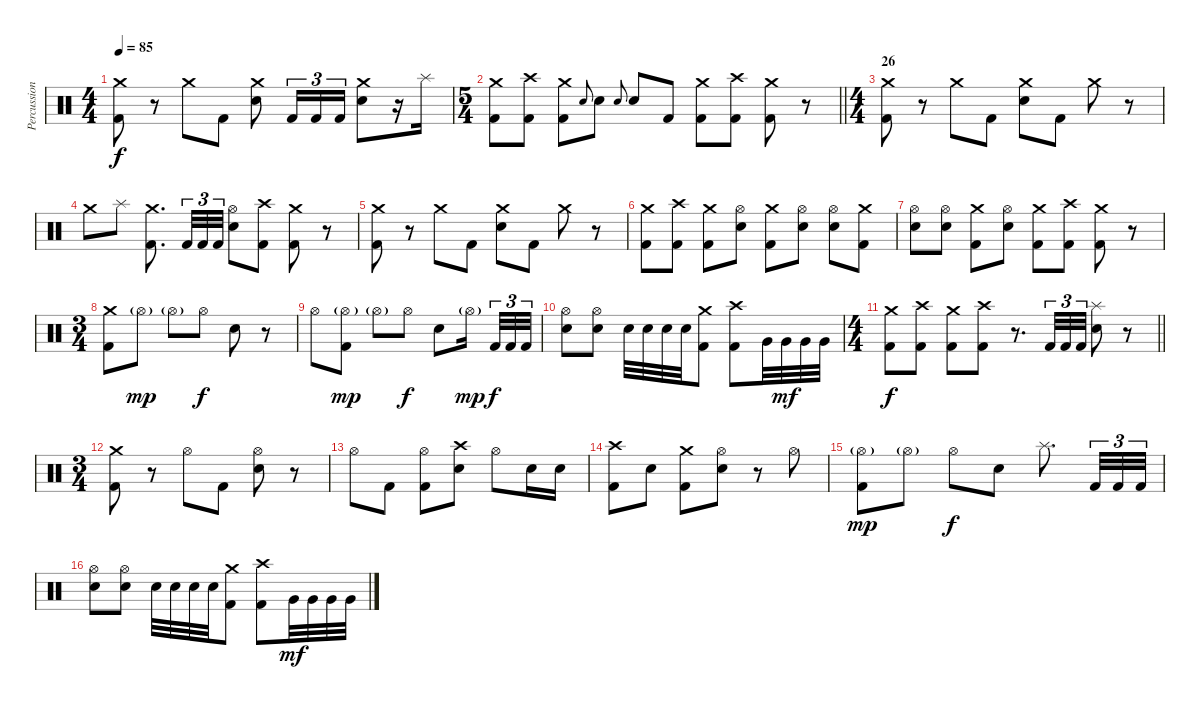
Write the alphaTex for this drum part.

\track ("Percussion" "Percussion") {instrument percussion}
\staff {score}
\articulation defaults
\ts (4 4)
\tempo 85
\clef neutral
\ks c
("Crash medium (hit)" "Kick (hit) 2").8{dy f} r.8 "Crash medium (hit)".8 "Kick (hit) 2".8 ("Crash medium (hit)" "Snare (hit) 2").8 "Kick (hit) 2".16{tu (3 2)} "Kick (hit) 2".16{tu (3 2)} "Kick (hit) 2".16{tu (3 2)} ("Crash medium (hit)" "Snare (hit) 2").8 r.16 "Splash (hit)".16 |
\ts (5 4)
\barLineRight lightlight
("Crash medium (hit)" "Kick (hit) 2").8 ("Crash high (hit)" "Kick (hit) 2").8 ("Crash medium (hit)" "Kick (hit) 2").8 "Snare (hit) 2".8{gr onbeat} "Snare (hit) 2".8 "Snare (hit) 2".8{gr onbeat} "Snare (hit) 2".8 "Kick (hit) 2".8 ("Crash medium (hit)" "Kick (hit) 2").8 ("Crash high (hit)" "Kick (hit) 2").8 ("Crash medium (hit)" "Kick (hit) 2").8 r.8 |
\ts (4 4)
\section ("" "26")
("Crash medium (hit)" "Kick (hit) 2").8 r.8 "Crash medium (hit)".8 "Kick (hit) 2".8 ("Crash medium (hit)" "Snare (hit) 2").8 "Kick (hit) 2".8 "Crash medium (hit)".8 r.8 |
"Crash medium (hit)".8 "Splash (hit)".8 ("Crash medium (hit)" "Kick (hit) 2").8{d} "Kick (hit) 2".32{tu (3 2)} "Kick (hit) 2".32{tu (3 2)} "Kick (hit) 2".32{tu (3 2)} ("Hi-Hat (open)" "Snare (hit) 2").8 ("Crash high (hit)" "Kick (hit) 2").8 ("Crash medium (hit)" "Kick (hit) 2").8 r.8 |
("Crash medium (hit)" "Kick (hit) 2").8 r.8 "Crash medium (hit)".8 "Kick (hit) 2".8 ("Crash medium (hit)" "Snare (hit) 2").8 "Kick (hit) 2".8 "Crash medium (hit)".8 r.8 |
("Crash medium (hit)" "Kick (hit) 2").8 ("Crash high (hit)" "Kick (hit) 2").8 ("Crash medium (hit)" "Kick (hit) 2").8 ("Hi-Hat (open)" "Snare (hit) 2").8 ("Crash medium (hit)" "Kick (hit) 2").8 ("Hi-Hat (open)" "Snare (hit) 2").8 ("Hi-Hat (open)" "Snare (hit) 2").8 ("Crash medium (hit)" "Kick (hit) 2").8 |
("Hi-Hat (open)" "Snare (hit) 2").8 ("Hi-Hat (open)" "Snare (hit) 2").8 ("Crash medium (hit)" "Kick (hit) 2").8 ("Hi-Hat (open)" "Snare (hit) 2").8 ("Crash medium (hit)" "Kick (hit) 2").8 ("Crash high (hit)" "Kick (hit) 2").8 ("Crash medium (hit)" "Kick (hit) 2").8 r.8 |
\ts (3 4)
("Crash medium (hit)" "Kick (hit) 2").8 "Hi-Hat (open)"{g}.8{dy mp} "Hi-Hat (open)"{g}.8 "Hi-Hat (open)".8{dy f} "Snare (hit) 2".8 r.8 |
"Hi-Hat (open)".8 ("Hi-Hat (open)"{g} "Kick (hit) 2").8{dy mp} "Hi-Hat (open)"{g}.8 "Hi-Hat (open)".8{dy f} "Snare (hit) 2".8 "Hi-Hat (open)"{g}.16{dy mp beam splitsecondary} "Kick (hit) 2".32{tu (3 2) dy f} "Kick (hit) 2".32{tu (3 2)} "Kick (hit) 2".32{tu (3 2)} |
("Hi-Hat (open)" "Snare (hit) 2").8 ("Hi-Hat (open)" "Snare (hit) 2").8 "Snare (hit) 2".32 "Snare (hit) 2".32 "Snare (hit) 2".32 "Snare (hit) 2".32 ("Crash medium (hit)" "Kick (hit) 2").8 ("Crash high (hit)" "Kick (hit) 2").8 "Very Low Tom (hit)".32 "Very Low Tom (hit)".32{dy mf} "Very Low Tom (hit)".32 "Very Low Tom (hit)".32 |
\ts (4 4)
\barLineRight lightlight
("Crash medium (hit)" "Kick (hit) 2").8{dy f} ("Crash high (hit)" "Kick (hit) 2").8 ("Crash medium (hit)" "Kick (hit) 2").8 ("Crash high (hit)" "Kick (hit) 2").8 r.8{d} "Kick (hit) 2".32{tu (3 2)} "Kick (hit) 2".32{tu (3 2)} "Kick (hit) 2".32{tu (3 2)} ("Splash (hit)" "Snare (hit) 2").8 r.8 |
\ts (3 4)
\section ("" "")
("Crash medium (hit)" "Kick (hit) 2").8 r.8 "Hi-Hat (open)".8 "Kick (hit) 2".8 ("Hi-Hat (open)" "Snare (hit) 2").8 r.8 |
"Hi-Hat (open)".8 "Kick (hit) 2".8 ("Hi-Hat (open)" "Kick (hit) 2").8 ("Crash high (hit)" "Snare (hit) 2").8 "Hi-Hat (open)".8 "Snare (hit) 2".16 "Snare (hit) 2".16 |
("Crash high (hit)" "Kick (hit) 2").8 "Snare (hit) 2".8 ("Crash medium (hit)" "Kick (hit) 2").8 ("Hi-Hat (open)" "Snare (hit) 2").8 r.8 "Hi-Hat (open)".8 |
("Hi-Hat (open)"{g} "Kick (hit) 2").8{dy mp} "Hi-Hat (open)"{g}.8 "Hi-Hat (open)".8{dy f} "Snare (hit) 2".8 "Splash (hit)".8{d} "Kick (hit) 2".32{tu (3 2)} "Kick (hit) 2".32{tu (3 2)} "Kick (hit) 2".32{tu (3 2)} |
("Hi-Hat (open)" "Snare (hit) 2").8 ("Hi-Hat (open)" "Snare (hit) 2").8 "Snare (hit) 2".32 "Snare (hit) 2".32 "Snare (hit) 2".32 "Snare (hit) 2".32 ("Crash medium (hit)" "Kick (hit) 2").8 ("Crash high (hit)" "Kick (hit) 2").8 "Very Low Tom (hit)".32{dy mf} "Very Low Tom (hit)".32 "Very Low Tom (hit)".32 "Very Low Tom (hit)".32
